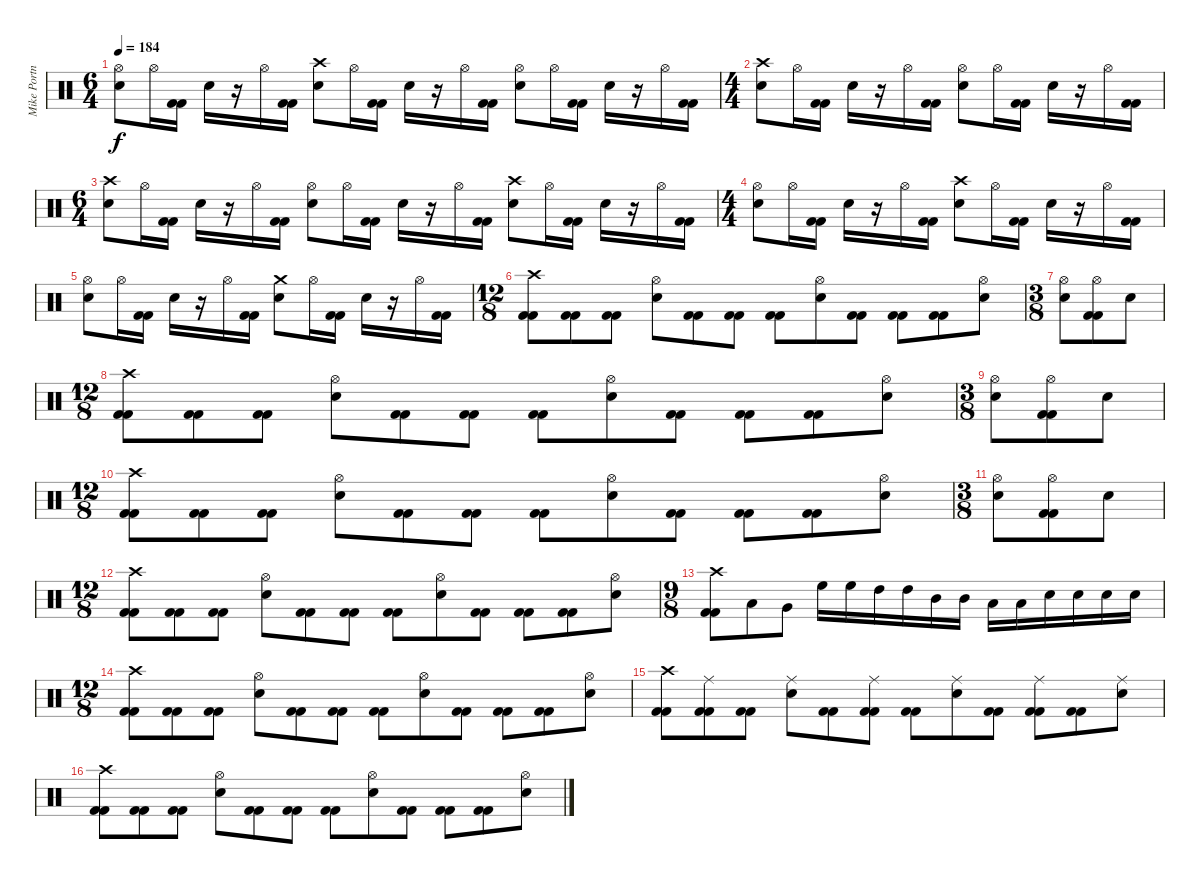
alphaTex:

\track ("Mike Portnoy - Drum" "Mike Portn") {instrument percussion}
\staff {score}
\articulation defaults
\ts (6 4)
\tempo 184
\clef neutral
\ks c
("Hi-Hat (open)" "Snare (hit) 2").8{dy f} "Hi-Hat (open)".16 ("Kick (hit) 2" "Kick (hit) 2").16 "Snare (hit) 2".16 r.16 "Hi-Hat (open)".16 ("Kick (hit) 2" "Kick (hit) 2").16 ("Crash high (hit)" "Snare (hit) 2").8 "Hi-Hat (open)".16 ("Kick (hit) 2" "Kick (hit) 2").16 "Snare (hit) 2".16 r.16 "Hi-Hat (open)".16 ("Kick (hit) 2" "Kick (hit) 2").16 ("Hi-Hat (open)" "Snare (hit) 2").8 "Hi-Hat (open)".16 ("Kick (hit) 2" "Kick (hit) 2").16 "Snare (hit) 2".16 r.16 "Hi-Hat (open)".16 ("Kick (hit) 2" "Kick (hit) 2").16 |
\ts (4 4)
("Crash high (hit)" "Snare (hit) 2").8 "Hi-Hat (open)".16 ("Kick (hit) 2" "Kick (hit) 2").16 "Snare (hit) 2".16 r.16 "Hi-Hat (open)".16 ("Kick (hit) 2" "Kick (hit) 2").16 ("Hi-Hat (open)" "Snare (hit) 2").8 "Hi-Hat (open)".16 ("Kick (hit) 2" "Kick (hit) 2").16 "Snare (hit) 2".16 r.16 "Hi-Hat (open)".16 ("Kick (hit) 2" "Kick (hit) 2").16 |
\ts (6 4)
("Crash high (hit)" "Snare (hit) 2").8 "Hi-Hat (open)".16 ("Kick (hit) 2" "Kick (hit) 2").16 "Snare (hit) 2".16 r.16 "Hi-Hat (open)".16 ("Kick (hit) 2" "Kick (hit) 2").16 ("Hi-Hat (open)" "Snare (hit) 2").8 "Hi-Hat (open)".16 ("Kick (hit) 2" "Kick (hit) 2").16 "Snare (hit) 2".16 r.16 "Hi-Hat (open)".16 ("Kick (hit) 2" "Kick (hit) 2").16 ("Crash high (hit)" "Snare (hit) 2").8 "Hi-Hat (open)".16 ("Kick (hit) 2" "Kick (hit) 2").16 "Snare (hit) 2".16 r.16 "Hi-Hat (open)".16 ("Kick (hit) 2" "Kick (hit) 2").16 |
\ts (4 4)
("Hi-Hat (open)" "Snare (hit) 2").8 "Hi-Hat (open)".16 ("Kick (hit) 2" "Kick (hit) 2").16 "Snare (hit) 2".16 r.16 "Hi-Hat (open)".16 ("Kick (hit) 2" "Kick (hit) 2").16 ("Crash high (hit)" "Snare (hit) 2").8 "Hi-Hat (open)".16 ("Kick (hit) 2" "Kick (hit) 2").16 "Snare (hit) 2".16 r.16 "Hi-Hat (open)".16 ("Kick (hit) 2" "Kick (hit) 2").16 |
("Hi-Hat (open)" "Snare (hit) 2").8 "Hi-Hat (open)".16 ("Kick (hit) 2" "Kick (hit) 2").16 "Snare (hit) 2".16 r.16 "Hi-Hat (open)".16 ("Kick (hit) 2" "Kick (hit) 2").16 ("Crash medium (hit)" "Snare (hit) 2").8 "Hi-Hat (open)".16 ("Kick (hit) 2" "Kick (hit) 2").16 "Snare (hit) 2".16 r.16 "Hi-Hat (open)".16 ("Kick (hit) 2" "Kick (hit) 2").16 |
\ts (12 8)
("Crash high (hit)" "Kick (hit) 2" "Kick (hit) 2").8 ("Kick (hit) 2" "Kick (hit) 2").8 ("Kick (hit) 2" "Kick (hit) 2").8 ("Hi-Hat (open)" "Snare (hit) 2").8 ("Kick (hit) 2" "Kick (hit) 2").8 ("Kick (hit) 2" "Kick (hit) 2").8 ("Kick (hit) 2" "Kick (hit) 2").8 ("Hi-Hat (open)" "Snare (hit) 2").8 ("Kick (hit) 2" "Kick (hit) 2").8 ("Kick (hit) 2" "Kick (hit) 2").8 ("Kick (hit) 2" "Kick (hit) 2").8 ("Hi-Hat (open)" "Snare (hit) 2").8 |
\ts (3 8)
("Hi-Hat (open)" "Snare (hit) 2").8 ("Hi-Hat (open)" "Kick (hit) 2" "Kick (hit) 2").8 "Snare (hit) 2".8 |
\ts (12 8)
("Crash high (hit)" "Kick (hit) 2" "Kick (hit) 2").8 ("Kick (hit) 2" "Kick (hit) 2").8 ("Kick (hit) 2" "Kick (hit) 2").8 ("Hi-Hat (open)" "Snare (hit) 2").8 ("Kick (hit) 2" "Kick (hit) 2").8 ("Kick (hit) 2" "Kick (hit) 2").8 ("Kick (hit) 2" "Kick (hit) 2").8 ("Hi-Hat (open)" "Snare (hit) 2").8 ("Kick (hit) 2" "Kick (hit) 2").8 ("Kick (hit) 2" "Kick (hit) 2").8 ("Kick (hit) 2" "Kick (hit) 2").8 ("Hi-Hat (open)" "Snare (hit) 2").8 |
\ts (3 8)
("Hi-Hat (open)" "Snare (hit) 2").8 ("Hi-Hat (open)" "Kick (hit) 2" "Kick (hit) 2").8 "Snare (hit) 2".8 |
\ts (12 8)
("Crash high (hit)" "Kick (hit) 2" "Kick (hit) 2").8 ("Kick (hit) 2" "Kick (hit) 2").8 ("Kick (hit) 2" "Kick (hit) 2").8 ("Hi-Hat (open)" "Snare (hit) 2").8 ("Kick (hit) 2" "Kick (hit) 2").8 ("Kick (hit) 2" "Kick (hit) 2").8 ("Kick (hit) 2" "Kick (hit) 2").8 ("Hi-Hat (open)" "Snare (hit) 2").8 ("Kick (hit) 2" "Kick (hit) 2").8 ("Kick (hit) 2" "Kick (hit) 2").8 ("Kick (hit) 2" "Kick (hit) 2").8 ("Hi-Hat (open)" "Snare (hit) 2").8 |
\ts (3 8)
("Hi-Hat (open)" "Snare (hit) 2").8 ("Hi-Hat (open)" "Kick (hit) 2" "Kick (hit) 2").8 "Snare (hit) 2".8 |
\ts (12 8)
("Crash high (hit)" "Kick (hit) 2" "Kick (hit) 2").8 ("Kick (hit) 2" "Kick (hit) 2").8 ("Kick (hit) 2" "Kick (hit) 2").8 ("Hi-Hat (open)" "Snare (hit) 2").8 ("Kick (hit) 2" "Kick (hit) 2").8 ("Kick (hit) 2" "Kick (hit) 2").8 ("Kick (hit) 2" "Kick (hit) 2").8 ("Hi-Hat (open)" "Snare (hit) 2").8 ("Kick (hit) 2" "Kick (hit) 2").8 ("Kick (hit) 2" "Kick (hit) 2").8 ("Kick (hit) 2" "Kick (hit) 2").8 ("Hi-Hat (open)" "Snare (hit) 2").8 |
\ts (9 8)
("Crash high (hit)" "Kick (hit) 2" "Kick (hit) 2").8 "Low Floor Tom (hit)".8 "Very Low Tom (hit)".8 "High Floor Tom (hit)".16 "High Floor Tom (hit)".16 "High Tom (hit)".16 "High Tom (hit)".16 "Mid Tom (hit)".16 "Mid Tom (hit)".16 "Low Tom (hit)".16 "Low Tom (hit)".16 "Snare (hit) 2".16 "Snare (hit) 2".16 "Snare (hit) 2".16 "Snare (hit) 2".16 |
\ts (12 8)
("Crash high (hit)" "Kick (hit) 2" "Kick (hit) 2").8 ("Kick (hit) 2" "Kick (hit) 2").8 ("Kick (hit) 2" "Kick (hit) 2").8 ("Hi-Hat (open)" "Snare (hit) 2").8 ("Kick (hit) 2" "Kick (hit) 2").8 ("Kick (hit) 2" "Kick (hit) 2").8 ("Kick (hit) 2" "Kick (hit) 2").8 ("Hi-Hat (open)" "Snare (hit) 2").8 ("Kick (hit) 2" "Kick (hit) 2").8 ("Kick (hit) 2" "Kick (hit) 2").8 ("Kick (hit) 2" "Kick (hit) 2").8 ("Hi-Hat (open)" "Snare (hit) 2").8 |
("Crash high (hit)" "Kick (hit) 2" "Kick (hit) 2").8 ("Ride (middle)" "Kick (hit) 2" "Kick (hit) 2").8 ("Kick (hit) 2" "Kick (hit) 2").8 ("Ride (middle)" "Snare (hit) 2").8 ("Kick (hit) 2" "Kick (hit) 2").8 ("Ride (middle)" "Kick (hit) 2" "Kick (hit) 2").8 ("Kick (hit) 2" "Kick (hit) 2").8 ("Ride (middle)" "Snare (hit) 2").8 ("Kick (hit) 2" "Kick (hit) 2").8 ("Ride (middle)" "Kick (hit) 2" "Kick (hit) 2").8 ("Kick (hit) 2" "Kick (hit) 2").8 ("Ride (middle)" "Snare (hit) 2").8 |
("Crash high (hit)" "Kick (hit) 2" "Kick (hit) 2").8 ("Kick (hit) 2" "Kick (hit) 2").8 ("Kick (hit) 2" "Kick (hit) 2").8 ("Hi-Hat (open)" "Snare (hit) 2").8 ("Kick (hit) 2" "Kick (hit) 2").8 ("Kick (hit) 2" "Kick (hit) 2").8 ("Kick (hit) 2" "Kick (hit) 2").8 ("Hi-Hat (open)" "Snare (hit) 2").8 ("Kick (hit) 2" "Kick (hit) 2").8 ("Kick (hit) 2" "Kick (hit) 2").8 ("Kick (hit) 2" "Kick (hit) 2").8 ("Hi-Hat (open)" "Snare (hit) 2").8
